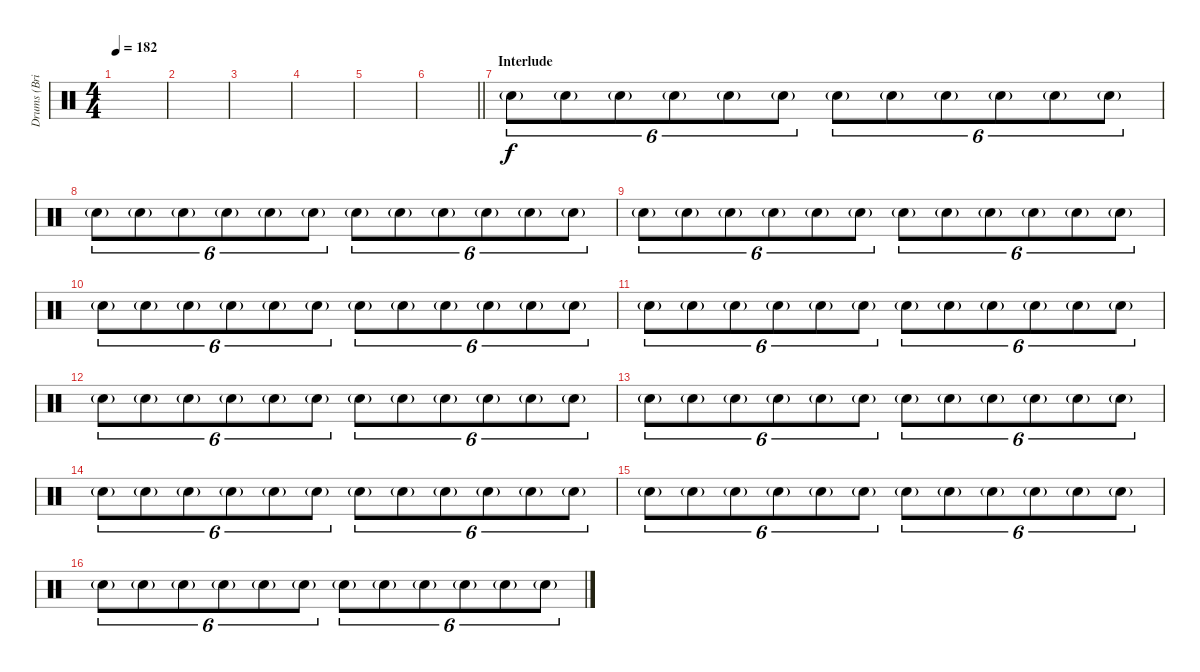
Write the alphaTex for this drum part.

\track ("Drums (Bridge)" "Drums (Bri") {instrument percussion}
\staff {score}
\articulation defaults
\ts (4 4)
\tempo 182
\clef neutral
\ks c
|
|
|
|
|
\barLineRight lightlight
|
\section ("" "Interlude")
"Electric Snare (hit)"{g}.8{tu (6 4)} "Electric Snare (hit)"{g}.8{tu (6 4)} "Electric Snare (hit)"{g}.8{tu (6 4)} "Electric Snare (hit)"{g}.8{tu (6 4)} "Electric Snare (hit)"{g}.8{tu (6 4)} "Electric Snare (hit)"{g}.8{tu (6 4)} "Electric Snare (hit)"{g}.8{tu (6 4)} "Electric Snare (hit)"{g}.8{tu (6 4)} "Electric Snare (hit)"{g}.8{tu (6 4)} "Electric Snare (hit)"{g}.8{tu (6 4)} "Electric Snare (hit)"{g}.8{tu (6 4)} "Electric Snare (hit)"{g}.8{tu (6 4)} |
"Electric Snare (hit)"{g}.8{tu (6 4)} "Electric Snare (hit)"{g}.8{tu (6 4)} "Electric Snare (hit)"{g}.8{tu (6 4)} "Electric Snare (hit)"{g}.8{tu (6 4)} "Electric Snare (hit)"{g}.8{tu (6 4)} "Electric Snare (hit)"{g}.8{tu (6 4)} "Electric Snare (hit)"{g}.8{tu (6 4)} "Electric Snare (hit)"{g}.8{tu (6 4)} "Electric Snare (hit)"{g}.8{tu (6 4)} "Electric Snare (hit)"{g}.8{tu (6 4)} "Electric Snare (hit)"{g}.8{tu (6 4)} "Electric Snare (hit)"{g}.8{tu (6 4)} |
"Electric Snare (hit)"{g}.8{tu (6 4)} "Electric Snare (hit)"{g}.8{tu (6 4)} "Electric Snare (hit)"{g}.8{tu (6 4)} "Electric Snare (hit)"{g}.8{tu (6 4)} "Electric Snare (hit)"{g}.8{tu (6 4)} "Electric Snare (hit)"{g}.8{tu (6 4)} "Electric Snare (hit)"{g}.8{tu (6 4)} "Electric Snare (hit)"{g}.8{tu (6 4)} "Electric Snare (hit)"{g}.8{tu (6 4)} "Electric Snare (hit)"{g}.8{tu (6 4)} "Electric Snare (hit)"{g}.8{tu (6 4)} "Electric Snare (hit)"{g}.8{tu (6 4)} |
"Electric Snare (hit)"{g}.8{tu (6 4)} "Electric Snare (hit)"{g}.8{tu (6 4)} "Electric Snare (hit)"{g}.8{tu (6 4)} "Electric Snare (hit)"{g}.8{tu (6 4)} "Electric Snare (hit)"{g}.8{tu (6 4)} "Electric Snare (hit)"{g}.8{tu (6 4)} "Electric Snare (hit)"{g}.8{tu (6 4)} "Electric Snare (hit)"{g}.8{tu (6 4)} "Electric Snare (hit)"{g}.8{tu (6 4)} "Electric Snare (hit)"{g}.8{tu (6 4)} "Electric Snare (hit)"{g}.8{tu (6 4)} "Electric Snare (hit)"{g}.8{tu (6 4)} |
"Electric Snare (hit)"{g}.8{tu (6 4)} "Electric Snare (hit)"{g}.8{tu (6 4)} "Electric Snare (hit)"{g}.8{tu (6 4)} "Electric Snare (hit)"{g}.8{tu (6 4)} "Electric Snare (hit)"{g}.8{tu (6 4)} "Electric Snare (hit)"{g}.8{tu (6 4)} "Electric Snare (hit)"{g}.8{tu (6 4)} "Electric Snare (hit)"{g}.8{tu (6 4)} "Electric Snare (hit)"{g}.8{tu (6 4)} "Electric Snare (hit)"{g}.8{tu (6 4)} "Electric Snare (hit)"{g}.8{tu (6 4)} "Electric Snare (hit)"{g}.8{tu (6 4)} |
"Electric Snare (hit)"{g}.8{tu (6 4)} "Electric Snare (hit)"{g}.8{tu (6 4)} "Electric Snare (hit)"{g}.8{tu (6 4)} "Electric Snare (hit)"{g}.8{tu (6 4)} "Electric Snare (hit)"{g}.8{tu (6 4)} "Electric Snare (hit)"{g}.8{tu (6 4)} "Electric Snare (hit)"{g}.8{tu (6 4)} "Electric Snare (hit)"{g}.8{tu (6 4)} "Electric Snare (hit)"{g}.8{tu (6 4)} "Electric Snare (hit)"{g}.8{tu (6 4)} "Electric Snare (hit)"{g}.8{tu (6 4)} "Electric Snare (hit)"{g}.8{tu (6 4)} |
"Electric Snare (hit)"{g}.8{tu (6 4)} "Electric Snare (hit)"{g}.8{tu (6 4)} "Electric Snare (hit)"{g}.8{tu (6 4)} "Electric Snare (hit)"{g}.8{tu (6 4)} "Electric Snare (hit)"{g}.8{tu (6 4)} "Electric Snare (hit)"{g}.8{tu (6 4)} "Electric Snare (hit)"{g}.8{tu (6 4)} "Electric Snare (hit)"{g}.8{tu (6 4)} "Electric Snare (hit)"{g}.8{tu (6 4)} "Electric Snare (hit)"{g}.8{tu (6 4)} "Electric Snare (hit)"{g}.8{tu (6 4)} "Electric Snare (hit)"{g}.8{tu (6 4)} |
"Electric Snare (hit)"{g}.8{tu (6 4)} "Electric Snare (hit)"{g}.8{tu (6 4)} "Electric Snare (hit)"{g}.8{tu (6 4)} "Electric Snare (hit)"{g}.8{tu (6 4)} "Electric Snare (hit)"{g}.8{tu (6 4)} "Electric Snare (hit)"{g}.8{tu (6 4)} "Electric Snare (hit)"{g}.8{tu (6 4)} "Electric Snare (hit)"{g}.8{tu (6 4)} "Electric Snare (hit)"{g}.8{tu (6 4)} "Electric Snare (hit)"{g}.8{tu (6 4)} "Electric Snare (hit)"{g}.8{tu (6 4)} "Electric Snare (hit)"{g}.8{tu (6 4)} |
"Electric Snare (hit)"{g}.8{tu (6 4)} "Electric Snare (hit)"{g}.8{tu (6 4)} "Electric Snare (hit)"{g}.8{tu (6 4)} "Electric Snare (hit)"{g}.8{tu (6 4)} "Electric Snare (hit)"{g}.8{tu (6 4)} "Electric Snare (hit)"{g}.8{tu (6 4)} "Electric Snare (hit)"{g}.8{tu (6 4)} "Electric Snare (hit)"{g}.8{tu (6 4)} "Electric Snare (hit)"{g}.8{tu (6 4)} "Electric Snare (hit)"{g}.8{tu (6 4)} "Electric Snare (hit)"{g}.8{tu (6 4)} "Electric Snare (hit)"{g}.8{tu (6 4)} |
"Electric Snare (hit)"{g}.8{tu (6 4)} "Electric Snare (hit)"{g}.8{tu (6 4)} "Electric Snare (hit)"{g}.8{tu (6 4)} "Electric Snare (hit)"{g}.8{tu (6 4)} "Electric Snare (hit)"{g}.8{tu (6 4)} "Electric Snare (hit)"{g}.8{tu (6 4)} "Electric Snare (hit)"{g}.8{tu (6 4)} "Electric Snare (hit)"{g}.8{tu (6 4)} "Electric Snare (hit)"{g}.8{tu (6 4)} "Electric Snare (hit)"{g}.8{tu (6 4)} "Electric Snare (hit)"{g}.8{tu (6 4)} "Electric Snare (hit)"{g}.8{tu (6 4)}
